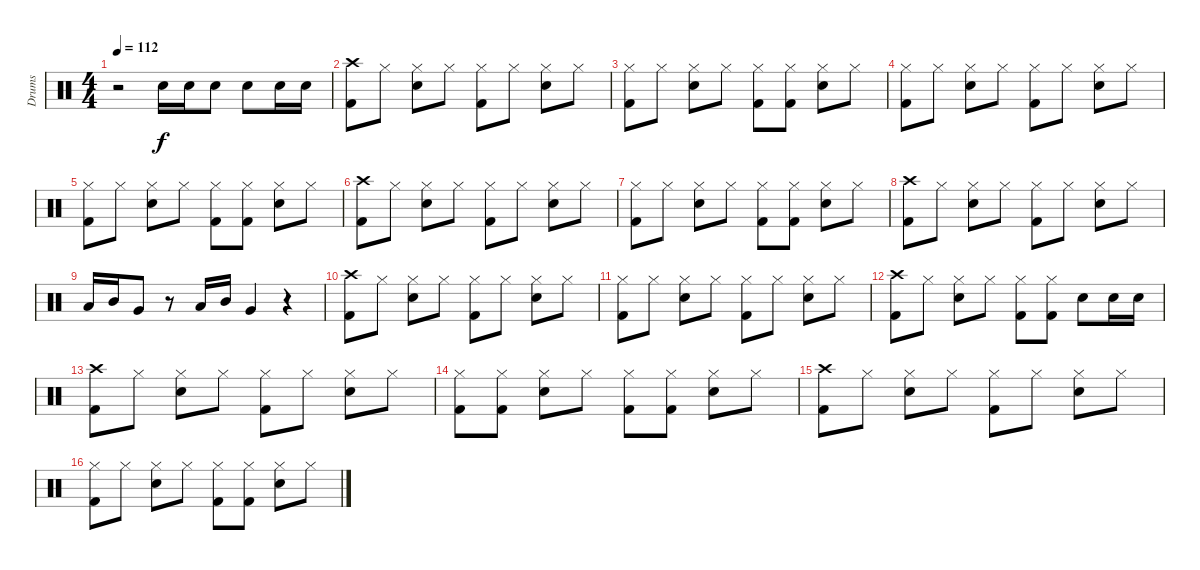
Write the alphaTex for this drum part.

\track ("Drums" "Drums") {instrument percussion}
\staff {score}
\articulation defaults
\ts (4 4)
\tempo 112
\clef neutral
\ks c
r.2{dy f} "Electric Snare (hit)".16 "Electric Snare (hit)".16 "Electric Snare (hit)".8 "Electric Snare (hit)".8 "Electric Snare (hit)".16 "Electric Snare (hit)".16 |
("Crash high (hit)" "Kick (hit) 2").8 "Hi-Hat (closed)".8 ("Hi-Hat (closed)" "Electric Snare (hit)").8 "Hi-Hat (closed)".8 ("Hi-Hat (closed)" "Kick (hit) 2").8 "Hi-Hat (closed)".8 ("Hi-Hat (closed)" "Electric Snare (hit)").8 "Hi-Hat (closed)".8 |
("Hi-Hat (closed)" "Kick (hit) 2").8 "Hi-Hat (closed)".8 ("Hi-Hat (closed)" "Electric Snare (hit)").8 "Hi-Hat (closed)".8 ("Hi-Hat (closed)" "Kick (hit) 2").8 ("Hi-Hat (closed)" "Kick (hit) 2").8 ("Hi-Hat (closed)" "Electric Snare (hit)").8 "Hi-Hat (closed)".8 |
("Hi-Hat (closed)" "Kick (hit) 2").8 "Hi-Hat (closed)".8 ("Hi-Hat (closed)" "Electric Snare (hit)").8 "Hi-Hat (closed)".8 ("Hi-Hat (closed)" "Kick (hit) 2").8 "Hi-Hat (closed)".8 ("Hi-Hat (closed)" "Electric Snare (hit)").8 "Hi-Hat (closed)".8 |
("Hi-Hat (closed)" "Kick (hit) 2").8 "Hi-Hat (closed)".8 ("Hi-Hat (closed)" "Electric Snare (hit)").8 "Hi-Hat (closed)".8 ("Hi-Hat (closed)" "Kick (hit) 2").8 ("Hi-Hat (closed)" "Kick (hit) 2").8 ("Hi-Hat (closed)" "Electric Snare (hit)").8 "Hi-Hat (closed)".8 |
("Crash high (hit)" "Kick (hit) 2").8 "Hi-Hat (closed)".8 ("Hi-Hat (closed)" "Electric Snare (hit)").8 "Hi-Hat (closed)".8 ("Hi-Hat (closed)" "Kick (hit) 2").8 "Hi-Hat (closed)".8 ("Hi-Hat (closed)" "Electric Snare (hit)").8 "Hi-Hat (closed)".8 |
("Hi-Hat (closed)" "Kick (hit) 2").8 "Hi-Hat (closed)".8 ("Hi-Hat (closed)" "Electric Snare (hit)").8 "Hi-Hat (closed)".8 ("Hi-Hat (closed)" "Kick (hit) 2").8 ("Hi-Hat (closed)" "Kick (hit) 2").8 ("Hi-Hat (closed)" "Electric Snare (hit)").8 "Hi-Hat (closed)".8 |
("Crash high (hit)" "Kick (hit) 2").8 "Hi-Hat (closed)".8 ("Hi-Hat (closed)" "Electric Snare (hit)").8 "Hi-Hat (closed)".8 ("Hi-Hat (closed)" "Kick (hit) 2").8 "Hi-Hat (closed)".8 ("Hi-Hat (closed)" "Electric Snare (hit)").8 "Hi-Hat (closed)".8 |
"Low Tom (hit)".16 "Mid Tom (hit)".16 "Very Low Tom (hit)".8 r.8 "Low Tom (hit)".16 "Mid Tom (hit)".16 "Very Low Tom (hit)".4 r.4 |
("Crash high (hit)" "Kick (hit) 2").8 "Hi-Hat (closed)".8 ("Hi-Hat (closed)" "Electric Snare (hit)").8 "Hi-Hat (closed)".8 ("Hi-Hat (closed)" "Kick (hit) 2").8 "Hi-Hat (closed)".8 ("Hi-Hat (closed)" "Electric Snare (hit)").8 "Hi-Hat (closed)".8 |
("Hi-Hat (closed)" "Kick (hit) 2").8 "Hi-Hat (closed)".8 ("Hi-Hat (closed)" "Electric Snare (hit)").8 "Hi-Hat (closed)".8 ("Hi-Hat (closed)" "Kick (hit) 2").8 "Hi-Hat (closed)".8 ("Hi-Hat (closed)" "Electric Snare (hit)").8 "Hi-Hat (closed)".8 |
("Crash high (hit)" "Kick (hit) 2").8 "Hi-Hat (closed)".8 ("Hi-Hat (closed)" "Electric Snare (hit)").8 "Hi-Hat (closed)".8 ("Hi-Hat (closed)" "Kick (hit) 2").8 ("Hi-Hat (closed)" "Kick (hit) 2").8 "Electric Snare (hit)".8 "Electric Snare (hit)".16 "Electric Snare (hit)".16 |
("Crash high (hit)" "Kick (hit) 2").8 "Hi-Hat (closed)".8 ("Hi-Hat (closed)" "Electric Snare (hit)").8 "Hi-Hat (closed)".8 ("Hi-Hat (closed)" "Kick (hit) 2").8 "Hi-Hat (closed)".8 ("Hi-Hat (closed)" "Electric Snare (hit)").8 "Hi-Hat (closed)".8 |
("Hi-Hat (closed)" "Kick (hit) 2").8 ("Hi-Hat (closed)" "Kick (hit) 2").8 ("Hi-Hat (closed)" "Electric Snare (hit)").8 "Hi-Hat (closed)".8 ("Hi-Hat (closed)" "Kick (hit) 2").8 ("Hi-Hat (closed)" "Kick (hit) 2").8 ("Hi-Hat (closed)" "Electric Snare (hit)").8 "Hi-Hat (closed)".8 |
("Crash high (hit)" "Kick (hit) 2").8 "Hi-Hat (closed)".8 ("Hi-Hat (closed)" "Electric Snare (hit)").8 "Hi-Hat (closed)".8 ("Hi-Hat (closed)" "Kick (hit) 2").8 "Hi-Hat (closed)".8 ("Hi-Hat (closed)" "Electric Snare (hit)").8 "Hi-Hat (closed)".8 |
("Hi-Hat (closed)" "Kick (hit) 2").8 "Hi-Hat (closed)".8 ("Hi-Hat (closed)" "Electric Snare (hit)").8 "Hi-Hat (closed)".8 ("Hi-Hat (closed)" "Kick (hit) 2").8 ("Hi-Hat (closed)" "Kick (hit) 2").8 ("Hi-Hat (closed)" "Electric Snare (hit)").8 "Hi-Hat (closed)".8
